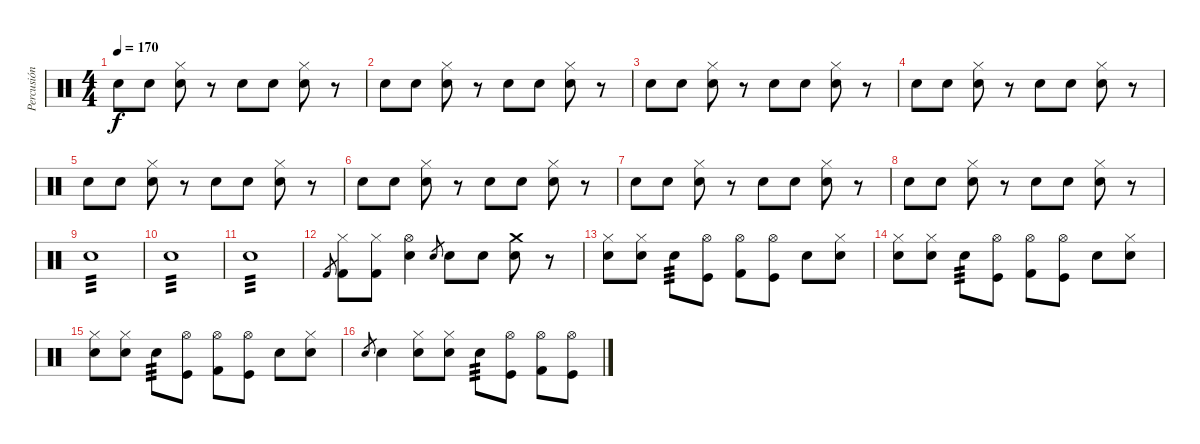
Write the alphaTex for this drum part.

\track ("Percusión" "Percusión") {instrument percussion}
\staff {score}
\articulation defaults
\ts (4 4)
\tempo 170
\clef neutral
\ks c "Electric Snare (hit)".8{dy f} "Electric Snare (hit)".8
("Hi-Hat (closed)" "Snare (hit) 2").8 r.8 "Electric Snare (hit)".8 "Electric Snare (hit)".8 ("Hi-Hat (closed)" "Snare (hit) 2").8 r.8 |
"Electric Snare (hit)".8 "Electric Snare (hit)".8 ("Hi-Hat (closed)" "Snare (hit) 2").8 r.8 "Electric Snare (hit)".8 "Electric Snare (hit)".8 ("Hi-Hat (closed)" "Snare (hit) 2").8 r.8 |
"Electric Snare (hit)".8 "Electric Snare (hit)".8 ("Hi-Hat (closed)" "Snare (hit) 2").8 r.8 "Electric Snare (hit)".8 "Electric Snare (hit)".8 ("Hi-Hat (closed)" "Snare (hit) 2").8 r.8 |
"Electric Snare (hit)".8 "Electric Snare (hit)".8 ("Hi-Hat (closed)" "Snare (hit) 2").8 r.8 "Electric Snare (hit)".8 "Electric Snare (hit)".8 ("Hi-Hat (closed)" "Snare (hit) 2").8 r.8 |
"Electric Snare (hit)".8 "Electric Snare (hit)".8 ("Hi-Hat (closed)" "Snare (hit) 2").8 r.8 "Electric Snare (hit)".8 "Electric Snare (hit)".8 ("Hi-Hat (closed)" "Snare (hit) 2").8 r.8 |
"Electric Snare (hit)".8 "Electric Snare (hit)".8 ("Hi-Hat (closed)" "Snare (hit) 2").8 r.8 "Electric Snare (hit)".8 "Electric Snare (hit)".8 ("Hi-Hat (closed)" "Snare (hit) 2").8 r.8 |
"Electric Snare (hit)".8 "Electric Snare (hit)".8 ("Hi-Hat (closed)" "Snare (hit) 2").8 r.8 "Electric Snare (hit)".8 "Electric Snare (hit)".8 ("Hi-Hat (closed)" "Snare (hit) 2").8 r.8 |
"Electric Snare (hit)".8 "Electric Snare (hit)".8 ("Hi-Hat (closed)" "Snare (hit) 2").8 r.8 "Electric Snare (hit)".8 "Electric Snare (hit)".8 ("Hi-Hat (closed)" "Snare (hit) 2").8 r.8 |
"Electric Snare (hit)".1{tp 3} |
"Electric Snare (hit)".1{tp 3} |
"Electric Snare (hit)".1{tp 3} |
"Kick (hit) 2".8{gr} ("Hi-Hat (closed)" "Kick (hit) 2").8 ("Hi-Hat (closed)" "Kick (hit) 2").8 ("Hi-Hat (open)" "Snare (hit) 2").4 "Electric Snare (hit)".8{gr} "Electric Snare (hit)".8 "Electric Snare (hit)".8 ("Crash medium (hit)" "Electric Snare (hit)").8 r.8 |
("Hi-Hat (closed)" "Electric Snare (hit)").8 ("Hi-Hat (closed)" "Electric Snare (hit)").8 "Snare (hit) 2".8{tp 3} ("Hi-Hat (open)" "Kick (hit)").8 ("Hi-Hat (open)" "Kick (hit) 2").8 ("Hi-Hat (open)" "Kick (hit)").8 "Electric Snare (hit)".8 ("Hi-Hat (closed)" "Electric Snare (hit)").8 |
("Hi-Hat (closed)" "Electric Snare (hit)").8 ("Hi-Hat (closed)" "Electric Snare (hit)").8 "Snare (hit) 2".8{tp 3} ("Hi-Hat (open)" "Kick (hit)").8 ("Hi-Hat (open)" "Kick (hit) 2").8 ("Hi-Hat (open)" "Kick (hit)").8 "Electric Snare (hit)".8 ("Hi-Hat (closed)" "Electric Snare (hit)").8 |
("Hi-Hat (closed)" "Electric Snare (hit)").8 ("Hi-Hat (closed)" "Electric Snare (hit)").8 "Snare (hit) 2".8{tp 3} ("Hi-Hat (open)" "Kick (hit)").8 ("Hi-Hat (open)" "Kick (hit) 2").8 ("Hi-Hat (open)" "Kick (hit)").8 "Electric Snare (hit)".8 ("Hi-Hat (closed)" "Electric Snare (hit)").8 |
"Electric Snare (hit)".8{gr} "Electric Snare (hit)".4 ("Hi-Hat (closed)" "Electric Snare (hit)").8 ("Hi-Hat (closed)" "Electric Snare (hit)").8 "Snare (hit) 2".8{tp 3} ("Hi-Hat (open)" "Kick (hit)").8 ("Hi-Hat (open)" "Kick (hit) 2").8 ("Hi-Hat (open)" "Kick (hit)").8
